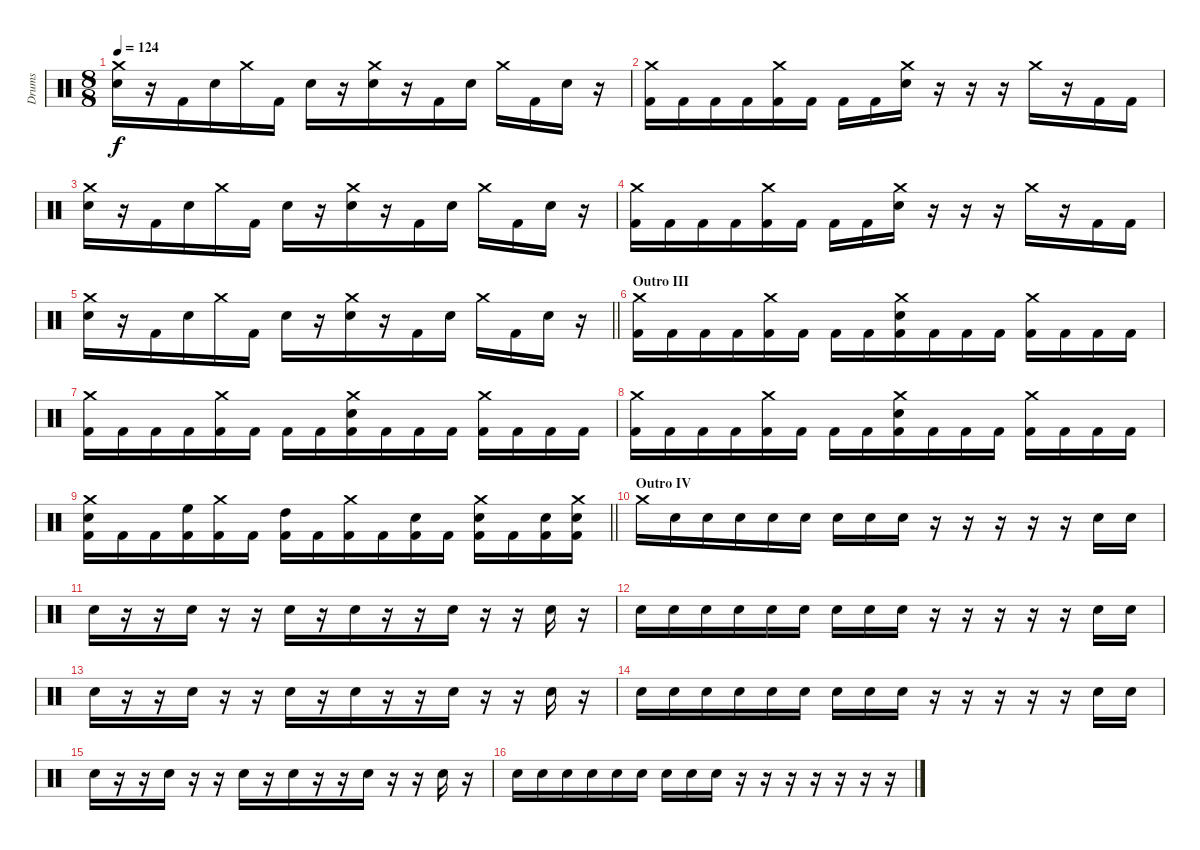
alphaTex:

\track ("Drums" "Drums") {instrument percussion}
\staff {score}
\articulation defaults
\ts (8 8)
\tempo 124
\clef neutral
\ks c
("Crash medium (hit)" "Electric Snare (hit)").16{dy f} r.16 "Kick (hit) 2".16 "Electric Snare (hit)".16 "Crash medium (hit)".16 "Kick (hit) 2".16 "Electric Snare (hit)".16 r.16 ("Crash medium (hit)" "Electric Snare (hit)").16 r.16 "Kick (hit) 2".16 "Electric Snare (hit)".16 "Crash medium (hit)".16 "Kick (hit) 2".16 "Electric Snare (hit)".16 r.16 |
("Crash medium (hit)" "Kick (hit) 2").16 "Kick (hit) 2".16 "Kick (hit) 2".16 "Kick (hit) 2".16 ("Crash medium (hit)" "Kick (hit) 2").16 "Kick (hit) 2".16 "Kick (hit) 2".16 "Kick (hit) 2".16 ("Crash medium (hit)" "Electric Snare (hit)").16 r.16 r.16 r.16 "Crash medium (hit)".16 r.16 "Kick (hit) 2".16 "Kick (hit) 2".16 |
("Crash medium (hit)" "Electric Snare (hit)").16 r.16 "Kick (hit) 2".16 "Electric Snare (hit)".16 "Crash medium (hit)".16 "Kick (hit) 2".16 "Electric Snare (hit)".16 r.16 ("Crash medium (hit)" "Electric Snare (hit)").16 r.16 "Kick (hit) 2".16 "Electric Snare (hit)".16 "Crash medium (hit)".16 "Kick (hit) 2".16 "Electric Snare (hit)".16 r.16 |
("Crash medium (hit)" "Kick (hit) 2").16 "Kick (hit) 2".16 "Kick (hit) 2".16 "Kick (hit) 2".16 ("Crash medium (hit)" "Kick (hit) 2").16 "Kick (hit) 2".16 "Kick (hit) 2".16 "Kick (hit) 2".16 ("Crash medium (hit)" "Electric Snare (hit)").16 r.16 r.16 r.16 "Crash medium (hit)".16 r.16 "Kick (hit) 2".16 "Kick (hit) 2".16 |
\barLineRight lightlight
("Crash medium (hit)" "Electric Snare (hit)").16 r.16 "Kick (hit) 2".16 "Electric Snare (hit)".16 "Crash medium (hit)".16 "Kick (hit) 2".16 "Electric Snare (hit)".16 r.16 ("Crash medium (hit)" "Electric Snare (hit)").16 r.16 "Kick (hit) 2".16 "Electric Snare (hit)".16 "Crash medium (hit)".16 "Kick (hit) 2".16 "Electric Snare (hit)".16 r.16 |
\section ("" "Outro III")
("Crash medium (hit)" "Kick (hit) 2").16 "Kick (hit) 2".16 "Kick (hit) 2".16 "Kick (hit) 2".16 ("Crash medium (hit)" "Kick (hit) 2").16 "Kick (hit) 2".16 "Kick (hit) 2".16 "Kick (hit) 2".16 ("Crash medium (hit)" "Electric Snare (hit)" "Kick (hit) 2").16 "Kick (hit) 2".16 "Kick (hit) 2".16 "Kick (hit) 2".16 ("Crash medium (hit)" "Kick (hit) 2").16 "Kick (hit) 2".16 "Kick (hit) 2".16 "Kick (hit) 2".16 |
("Crash medium (hit)" "Kick (hit) 2").16 "Kick (hit) 2".16 "Kick (hit) 2".16 "Kick (hit) 2".16 ("Crash medium (hit)" "Kick (hit) 2").16 "Kick (hit) 2".16 "Kick (hit) 2".16 "Kick (hit) 2".16 ("Crash medium (hit)" "Electric Snare (hit)" "Kick (hit) 2").16 "Kick (hit) 2".16 "Kick (hit) 2".16 "Kick (hit) 2".16 ("Crash medium (hit)" "Kick (hit) 2").16 "Kick (hit) 2".16 "Kick (hit) 2".16 "Kick (hit) 2".16 |
("Crash medium (hit)" "Kick (hit) 2").16 "Kick (hit) 2".16 "Kick (hit) 2".16 "Kick (hit) 2".16 ("Crash medium (hit)" "Kick (hit) 2").16 "Kick (hit) 2".16 "Kick (hit) 2".16 "Kick (hit) 2".16 ("Crash medium (hit)" "Electric Snare (hit)" "Kick (hit) 2").16 "Kick (hit) 2".16 "Kick (hit) 2".16 "Kick (hit) 2".16 ("Crash medium (hit)" "Kick (hit) 2").16 "Kick (hit) 2".16 "Kick (hit) 2".16 "Kick (hit) 2".16 |
\barLineRight lightlight
("Crash medium (hit)" "Electric Snare (hit)" "Kick (hit) 2").16 "Kick (hit) 2".16 "Kick (hit) 2".16 ("High Floor Tom (hit)" "Kick (hit) 2").16 ("Crash medium (hit)" "Kick (hit) 2").16 "Kick (hit) 2".16 ("High Tom (hit)" "Kick (hit) 2").16 "Kick (hit) 2".16 ("Crash medium (hit)" "Kick (hit) 2").16 "Kick (hit) 2".16 ("Electric Snare (hit)" "Kick (hit) 2").16 "Kick (hit) 2".16 ("Crash medium (hit)" "Electric Snare (hit)" "Kick (hit) 2").16 "Kick (hit) 2".16 ("Electric Snare (hit)" "Kick (hit) 2").16 ("Crash medium (hit)" "Electric Snare (hit)" "Kick (hit) 2").16 |
\section ("" "Outro IV")
"Crash medium (hit)".16 "Snare (hit) 2".16 "Snare (hit) 2".16 "Snare (hit) 2".16 "Snare (hit) 2".16 "Snare (hit) 2".16 "Snare (hit) 2".16 "Snare (hit) 2".16 "Snare (hit) 2".16 r.16 r.16 r.16 r.16 r.16 "Snare (hit) 2".16 "Snare (hit) 2".16 |
"Snare (hit) 2".16 r.16 r.16 "Snare (hit) 2".16 r.16 r.16 "Snare (hit) 2".16 r.16 "Snare (hit) 2".16 r.16 r.16 "Snare (hit) 2".16 r.16 r.16 "Snare (hit) 2".16 r.16 |
"Snare (hit) 2".16 "Snare (hit) 2".16 "Snare (hit) 2".16 "Snare (hit) 2".16 "Snare (hit) 2".16 "Snare (hit) 2".16 "Snare (hit) 2".16 "Snare (hit) 2".16 "Snare (hit) 2".16 r.16 r.16 r.16 r.16 r.16 "Snare (hit) 2".16 "Snare (hit) 2".16 |
"Snare (hit) 2".16 r.16 r.16 "Snare (hit) 2".16 r.16 r.16 "Snare (hit) 2".16 r.16 "Snare (hit) 2".16 r.16 r.16 "Snare (hit) 2".16 r.16 r.16 "Snare (hit) 2".16 r.16 |
"Snare (hit) 2".16 "Snare (hit) 2".16 "Snare (hit) 2".16 "Snare (hit) 2".16 "Snare (hit) 2".16 "Snare (hit) 2".16 "Snare (hit) 2".16 "Snare (hit) 2".16 "Snare (hit) 2".16 r.16 r.16 r.16 r.16 r.16 "Snare (hit) 2".16 "Snare (hit) 2".16 |
"Snare (hit) 2".16 r.16 r.16 "Snare (hit) 2".16 r.16 r.16 "Snare (hit) 2".16 r.16 "Snare (hit) 2".16 r.16 r.16 "Snare (hit) 2".16 r.16 r.16 "Snare (hit) 2".16 r.16 |
"Snare (hit) 2".16 "Snare (hit) 2".16 "Snare (hit) 2".16 "Snare (hit) 2".16 "Snare (hit) 2".16 "Snare (hit) 2".16 "Snare (hit) 2".16 "Snare (hit) 2".16 "Snare (hit) 2".16 r.16 r.16 r.16 r.16 r.16 r.16 r.16
